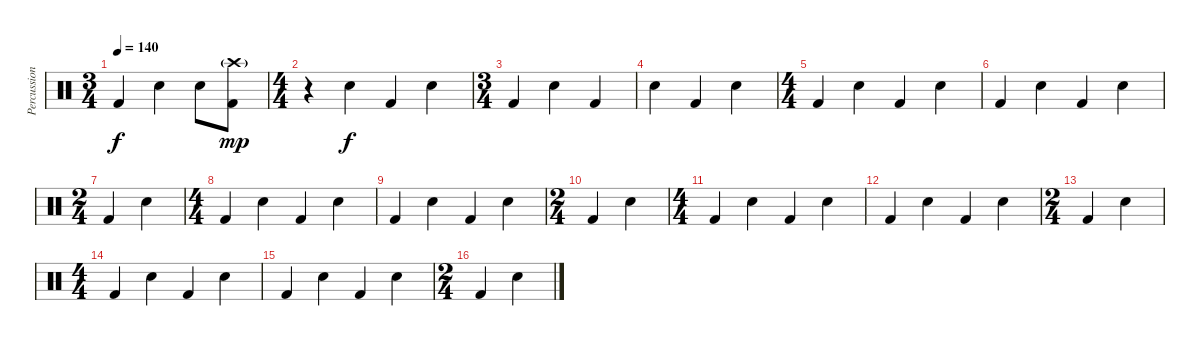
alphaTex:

\track ("Percussion" "Percussion") {instrument percussion}
\staff {score}
\articulation defaults
\ts (3 4)
\tempo 140
\clef neutral
\ks c "Kick (hit) 2".4{dy f} "Snare (hit) 2".4 "Snare (hit) 2".8
("Crash high (hit)"{g} "Kick (hit) 2").8{dy mp} |
\ts (4 4)
r.4 "Snare (hit) 2".4{dy f} "Kick (hit) 2".4 "Snare (hit) 2".4 |
\ts (3 4)
"Kick (hit) 2".4 "Snare (hit) 2".4 "Kick (hit) 2".4 |
"Snare (hit) 2".4 "Kick (hit) 2".4 "Snare (hit) 2".4 |
\ts (4 4)
"Kick (hit) 2".4 "Snare (hit) 2".4 "Kick (hit) 2".4 "Snare (hit) 2".4 |
"Kick (hit) 2".4 "Snare (hit) 2".4 "Kick (hit) 2".4 "Snare (hit) 2".4 |
\ts (2 4)
"Kick (hit) 2".4 "Snare (hit) 2".4 |
\ts (4 4)
"Kick (hit) 2".4 "Snare (hit) 2".4 "Kick (hit) 2".4 "Snare (hit) 2".4 |
"Kick (hit) 2".4 "Snare (hit) 2".4 "Kick (hit) 2".4 "Snare (hit) 2".4 |
\ts (2 4)
"Kick (hit) 2".4 "Snare (hit) 2".4 |
\ts (4 4)
"Kick (hit) 2".4 "Snare (hit) 2".4 "Kick (hit) 2".4 "Snare (hit) 2".4 |
"Kick (hit) 2".4 "Snare (hit) 2".4 "Kick (hit) 2".4 "Snare (hit) 2".4 |
\ts (2 4)
"Kick (hit) 2".4 "Snare (hit) 2".4 |
\ts (4 4)
"Kick (hit) 2".4 "Snare (hit) 2".4 "Kick (hit) 2".4 "Snare (hit) 2".4 |
"Kick (hit) 2".4 "Snare (hit) 2".4 "Kick (hit) 2".4 "Snare (hit) 2".4 |
\ts (2 4)
"Kick (hit) 2".4 "Snare (hit) 2".4
